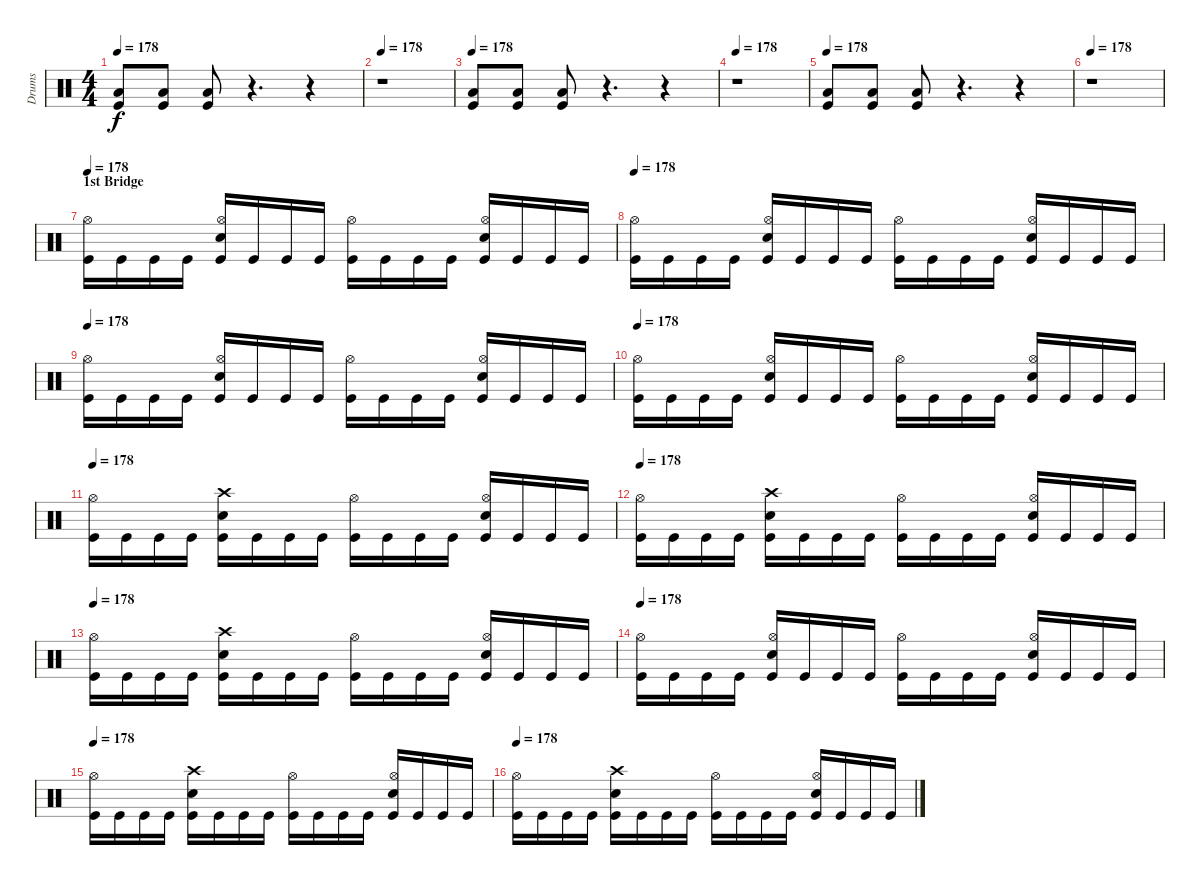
\track ("Drums" "Drums") {instrument percussion}
\staff {score}
\articulation defaults
\ts (4 4)
\tempo 178
\clef neutral
\ks c
("Low Floor Tom (hit)" "Kick (hit)").8{dy f} ("Low Floor Tom (hit)" "Kick (hit)").8 ("Low Floor Tom (hit)" "Kick (hit)").8 r.4{d} r.4 |
\tempo 178
r.1 |
\tempo 178
("Low Floor Tom (hit)" "Kick (hit)").8 ("Low Floor Tom (hit)" "Kick (hit)").8 ("Low Floor Tom (hit)" "Kick (hit)").8 r.4{d} r.4 |
\tempo 178
r.1 |
\tempo 178
("Low Floor Tom (hit)" "Kick (hit)").8 ("Low Floor Tom (hit)" "Kick (hit)").8 ("Low Floor Tom (hit)" "Kick (hit)").8 r.4{d} r.4 |
\tempo 178
r.1 |
\section ("" "1st Bridge")
\tempo 178
("Hi-Hat (open)" "Kick (hit)").16 "Kick (hit)".16 "Kick (hit)".16 "Kick (hit)".16 ("Hi-Hat (open)" "Snare (hit) 2" "Kick (hit)").16 "Kick (hit)".16 "Kick (hit)".16 "Kick (hit)".16 ("Hi-Hat (open)" "Kick (hit)").16 "Kick (hit)".16 "Kick (hit)".16 "Kick (hit)".16 ("Hi-Hat (open)" "Snare (hit) 2" "Kick (hit)").16 "Kick (hit)".16 "Kick (hit)".16 "Kick (hit)".16 |
\tempo 178
("Hi-Hat (open)" "Kick (hit)").16 "Kick (hit)".16 "Kick (hit)".16 "Kick (hit)".16 ("Hi-Hat (open)" "Snare (hit) 2" "Kick (hit)").16 "Kick (hit)".16 "Kick (hit)".16 "Kick (hit)".16 ("Hi-Hat (open)" "Kick (hit)").16 "Kick (hit)".16 "Kick (hit)".16 "Kick (hit)".16 ("Hi-Hat (open)" "Snare (hit) 2" "Kick (hit)").16 "Kick (hit)".16 "Kick (hit)".16 "Kick (hit)".16 |
\tempo 178
("Hi-Hat (open)" "Kick (hit)").16 "Kick (hit)".16 "Kick (hit)".16 "Kick (hit)".16 ("Hi-Hat (open)" "Snare (hit) 2" "Kick (hit)").16 "Kick (hit)".16 "Kick (hit)".16 "Kick (hit)".16 ("Hi-Hat (open)" "Kick (hit)").16 "Kick (hit)".16 "Kick (hit)".16 "Kick (hit)".16 ("Hi-Hat (open)" "Snare (hit) 2" "Kick (hit)").16 "Kick (hit)".16 "Kick (hit)".16 "Kick (hit)".16 |
\tempo 178
("Hi-Hat (open)" "Kick (hit)").16 "Kick (hit)".16 "Kick (hit)".16 "Kick (hit)".16 ("Hi-Hat (open)" "Snare (hit) 2" "Kick (hit)").16 "Kick (hit)".16 "Kick (hit)".16 "Kick (hit)".16 ("Hi-Hat (open)" "Kick (hit)").16 "Kick (hit)".16 "Kick (hit)".16 "Kick (hit)".16 ("Hi-Hat (open)" "Snare (hit) 2" "Kick (hit)").16 "Kick (hit)".16 "Kick (hit)".16 "Kick (hit)".16 |
\tempo 178
("Hi-Hat (open)" "Kick (hit)").16 "Kick (hit)".16 "Kick (hit)".16 "Kick (hit)".16 ("Crash high (hit)" "Snare (hit) 2" "Kick (hit)").16 "Kick (hit)".16 "Kick (hit)".16 "Kick (hit)".16 ("Hi-Hat (open)" "Kick (hit)").16 "Kick (hit)".16 "Kick (hit)".16 "Kick (hit)".16 ("Hi-Hat (open)" "Snare (hit) 2" "Kick (hit)").16 "Kick (hit)".16 "Kick (hit)".16 "Kick (hit)".16 |
\tempo 178
("Hi-Hat (open)" "Kick (hit)").16 "Kick (hit)".16 "Kick (hit)".16 "Kick (hit)".16 ("Crash high (hit)" "Snare (hit) 2" "Kick (hit)").16 "Kick (hit)".16 "Kick (hit)".16 "Kick (hit)".16 ("Hi-Hat (open)" "Kick (hit)").16 "Kick (hit)".16 "Kick (hit)".16 "Kick (hit)".16 ("Hi-Hat (open)" "Snare (hit) 2" "Kick (hit)").16 "Kick (hit)".16 "Kick (hit)".16 "Kick (hit)".16 |
\tempo 178
("Hi-Hat (open)" "Kick (hit)").16 "Kick (hit)".16 "Kick (hit)".16 "Kick (hit)".16 ("Crash high (hit)" "Snare (hit) 2" "Kick (hit)").16 "Kick (hit)".16 "Kick (hit)".16 "Kick (hit)".16 ("Hi-Hat (open)" "Kick (hit)").16 "Kick (hit)".16 "Kick (hit)".16 "Kick (hit)".16 ("Hi-Hat (open)" "Snare (hit) 2" "Kick (hit)").16 "Kick (hit)".16 "Kick (hit)".16 "Kick (hit)".16 |
\tempo 178
("Hi-Hat (open)" "Kick (hit)").16 "Kick (hit)".16 "Kick (hit)".16 "Kick (hit)".16 ("Hi-Hat (open)" "Snare (hit) 2" "Kick (hit)").16 "Kick (hit)".16 "Kick (hit)".16 "Kick (hit)".16 ("Hi-Hat (open)" "Kick (hit)").16 "Kick (hit)".16 "Kick (hit)".16 "Kick (hit)".16 ("Hi-Hat (open)" "Snare (hit) 2" "Kick (hit)").16 "Kick (hit)".16 "Kick (hit)".16 "Kick (hit)".16 |
\tempo 178
("Hi-Hat (open)" "Kick (hit)").16 "Kick (hit)".16 "Kick (hit)".16 "Kick (hit)".16 ("Crash high (hit)" "Snare (hit) 2" "Kick (hit)").16 "Kick (hit)".16 "Kick (hit)".16 "Kick (hit)".16 ("Hi-Hat (open)" "Kick (hit)").16 "Kick (hit)".16 "Kick (hit)".16 "Kick (hit)".16 ("Hi-Hat (open)" "Snare (hit) 2" "Kick (hit)").16 "Kick (hit)".16 "Kick (hit)".16 "Kick (hit)".16 |
\tempo 178
("Hi-Hat (open)" "Kick (hit)").16 "Kick (hit)".16 "Kick (hit)".16 "Kick (hit)".16 ("Crash high (hit)" "Snare (hit) 2" "Kick (hit)").16 "Kick (hit)".16 "Kick (hit)".16 "Kick (hit)".16 ("Hi-Hat (open)" "Kick (hit)").16 "Kick (hit)".16 "Kick (hit)".16 "Kick (hit)".16 ("Hi-Hat (open)" "Snare (hit) 2" "Kick (hit)").16 "Kick (hit)".16 "Kick (hit)".16 "Kick (hit)".16
